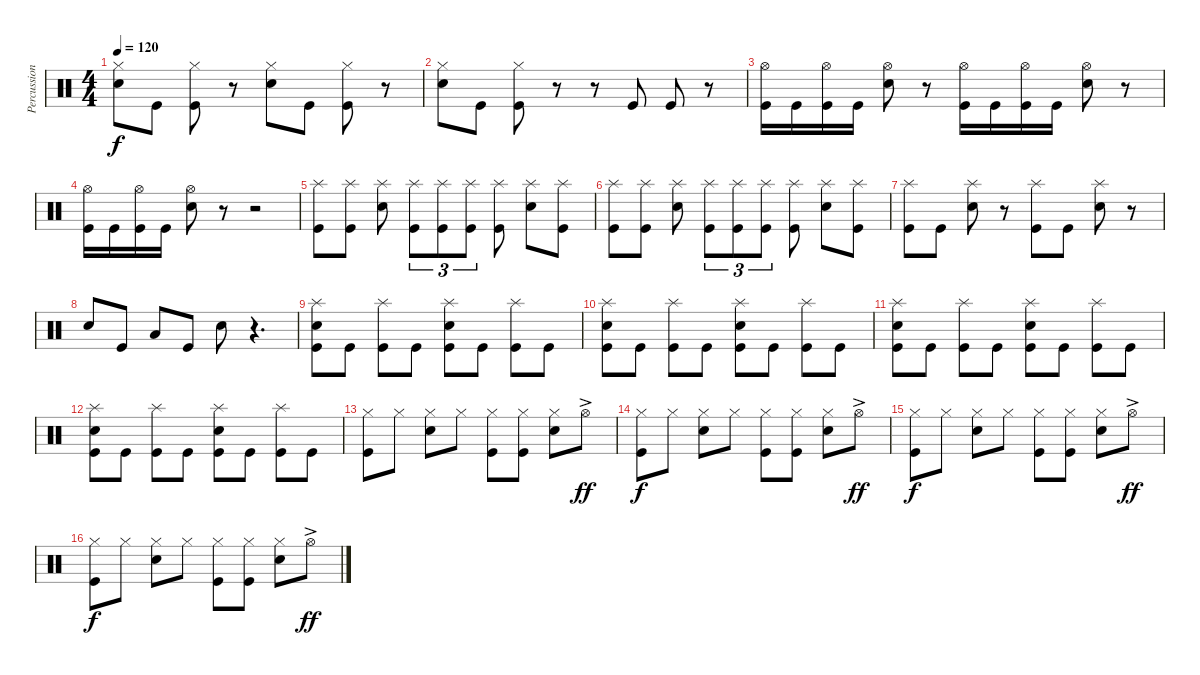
\track ("Percussion" "Percussion") {instrument percussion}
\staff {score}
\articulation defaults
\ts (4 4)
\tempo 120
\clef neutral
\ks c
("Hi-Hat (closed)" "Snare (hit) 2").8{dy f} "Kick (hit)".8 ("Hi-Hat (closed)" "Kick (hit)").8 r.8 ("Hi-Hat (closed)" "Snare (hit) 2").8 "Kick (hit)".8 ("Hi-Hat (closed)" "Kick (hit)").8 r.8 |
("Hi-Hat (closed)" "Snare (hit) 2").8 "Kick (hit)".8 ("Hi-Hat (closed)" "Kick (hit)").8 r.8 r.8 "Kick (hit)".8 "Kick (hit)".8 r.8 |
("Hi-Hat (open)" "Kick (hit)").16 "Kick (hit)".16 ("Hi-Hat (open)" "Kick (hit)").16 "Kick (hit)".16 ("Hi-Hat (open)" "Snare (hit) 2").8 r.8 ("Hi-Hat (open)" "Kick (hit)").16 "Kick (hit)".16 ("Hi-Hat (open)" "Kick (hit)").16 "Kick (hit)".16 ("Hi-Hat (open)" "Snare (hit) 2").8 r.8 |
("Hi-Hat (open)" "Kick (hit)").16 "Kick (hit)".16 ("Hi-Hat (open)" "Kick (hit)").16 "Kick (hit)".16 ("Hi-Hat (open)" "Snare (hit) 2").8 r.8 r.2 |
("Splash (hit)" "Kick (hit)").8 ("Splash (hit)" "Kick (hit)").8 ("Splash (hit)" "Snare (hit) 2").8 ("Splash (hit)" "Kick (hit)").8{tu (3 2)} ("Splash (hit)" "Kick (hit)").8{tu (3 2)} ("Splash (hit)" "Kick (hit)").8{tu (3 2)} ("Splash (hit)" "Kick (hit)").8 ("Splash (hit)" "Snare (hit) 2").8 ("Splash (hit)" "Kick (hit)").8 |
("Splash (hit)" "Kick (hit)").8 ("Splash (hit)" "Kick (hit)").8 ("Splash (hit)" "Snare (hit) 2").8 ("Splash (hit)" "Kick (hit)").8{tu (3 2)} ("Splash (hit)" "Kick (hit)").8{tu (3 2)} ("Splash (hit)" "Kick (hit)").8{tu (3 2)} ("Splash (hit)" "Kick (hit)").8 ("Splash (hit)" "Snare (hit) 2").8 ("Splash (hit)" "Kick (hit)").8 |
("Splash (hit)" "Kick (hit)").8 "Kick (hit)".8 ("Splash (hit)" "Snare (hit) 2").8 r.8 ("Splash (hit)" "Kick (hit)").8 "Kick (hit)".8 ("Splash (hit)" "Snare (hit) 2").8 r.8 |
"Snare (hit) 2".8 "Kick (hit)".8 "Low Floor Tom (hit)".8 "Kick (hit)".8 "Snare (hit) 2".8 r.4{d} |
("Splash (hit)" "Snare (hit) 2" "Kick (hit)").8 "Kick (hit)".8 ("Splash (hit)" "Kick (hit)").8 "Kick (hit)".8 ("Splash (hit)" "Snare (hit) 2" "Kick (hit)").8 "Kick (hit)".8 ("Splash (hit)" "Kick (hit)").8 "Kick (hit)".8 |
("Splash (hit)" "Snare (hit) 2" "Kick (hit)").8 "Kick (hit)".8 ("Splash (hit)" "Kick (hit)").8 "Kick (hit)".8 ("Splash (hit)" "Snare (hit) 2" "Kick (hit)").8 "Kick (hit)".8 ("Splash (hit)" "Kick (hit)").8 "Kick (hit)".8 |
("Splash (hit)" "Snare (hit) 2" "Kick (hit)").8 "Kick (hit)".8 ("Splash (hit)" "Kick (hit)").8 "Kick (hit)".8 ("Splash (hit)" "Snare (hit) 2" "Kick (hit)").8 "Kick (hit)".8 ("Splash (hit)" "Kick (hit)").8 "Kick (hit)".8 |
("Splash (hit)" "Snare (hit) 2" "Kick (hit)").8 "Kick (hit)".8 ("Splash (hit)" "Kick (hit)").8 "Kick (hit)".8 ("Splash (hit)" "Snare (hit) 2" "Kick (hit)").8 "Kick (hit)".8 ("Splash (hit)" "Kick (hit)").8 "Kick (hit)".8 |
("Hi-Hat (closed)" "Kick (hit)").8 "Hi-Hat (closed)".8 ("Hi-Hat (closed)" "Snare (hit) 2").8 "Hi-Hat (closed)".8 ("Hi-Hat (closed)" "Kick (hit)").8 ("Hi-Hat (closed)" "Kick (hit)").8 ("Hi-Hat (closed)" "Snare (hit) 2").8 "Hi-Hat (open)"{ac}.8{dy ff} |
("Hi-Hat (closed)" "Kick (hit)").8{dy f} "Hi-Hat (closed)".8 ("Hi-Hat (closed)" "Snare (hit) 2").8 "Hi-Hat (closed)".8 ("Hi-Hat (closed)" "Kick (hit)").8 ("Hi-Hat (closed)" "Kick (hit)").8 ("Hi-Hat (closed)" "Snare (hit) 2").8 "Hi-Hat (open)"{ac}.8{dy ff} |
("Hi-Hat (closed)" "Kick (hit)").8{dy f} "Hi-Hat (closed)".8 ("Hi-Hat (closed)" "Snare (hit) 2").8 "Hi-Hat (closed)".8 ("Hi-Hat (closed)" "Kick (hit)").8 ("Hi-Hat (closed)" "Kick (hit)").8 ("Hi-Hat (closed)" "Snare (hit) 2").8 "Hi-Hat (open)"{ac}.8{dy ff} |
("Hi-Hat (closed)" "Kick (hit)").8{dy f} "Hi-Hat (closed)".8 ("Hi-Hat (closed)" "Snare (hit) 2").8 "Hi-Hat (closed)".8 ("Hi-Hat (closed)" "Kick (hit)").8 ("Hi-Hat (closed)" "Kick (hit)").8 ("Hi-Hat (closed)" "Snare (hit) 2").8 "Hi-Hat (open)"{ac}.8{dy ff}
